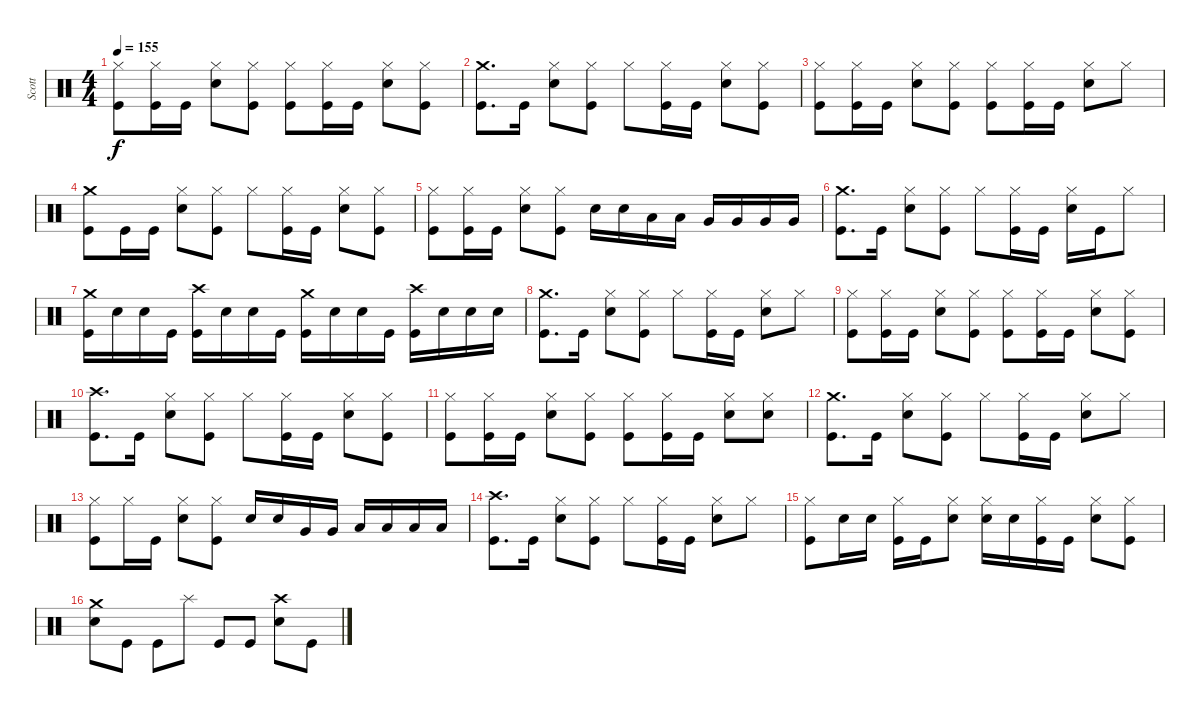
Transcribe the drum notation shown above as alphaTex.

\track ("Scott" "Scott") {instrument percussion}
\staff {score}
\articulation defaults
\ts (4 4)
\tempo 155
\clef neutral
\ks c
("Kick (hit)" "Hi-Hat (closed)").8{dy f} ("Kick (hit)" "Hi-Hat (closed)").16 "Kick (hit)".16 ("Snare (hit) 2" "Hi-Hat (closed)").8 ("Kick (hit)" "Hi-Hat (closed)").8 ("Kick (hit)" "Hi-Hat (closed)").8 ("Kick (hit)" "Hi-Hat (closed)").16 "Kick (hit)".16 ("Snare (hit) 2" "Hi-Hat (closed)").8 ("Kick (hit)" "Hi-Hat (closed)").8 |
("Kick (hit)" "Crash medium (hit)").8{d} "Kick (hit)".16 ("Snare (hit) 2" "Hi-Hat (closed)").8 ("Kick (hit)" "Hi-Hat (closed)").8 "Hi-Hat (closed)".8 ("Kick (hit)" "Hi-Hat (closed)").16 "Kick (hit)".16 ("Snare (hit) 2" "Hi-Hat (closed)").8 ("Kick (hit)" "Hi-Hat (closed)").8 |
("Kick (hit)" "Hi-Hat (closed)").8 ("Kick (hit)" "Hi-Hat (closed)").16 "Kick (hit)".16 ("Snare (hit) 2" "Hi-Hat (closed)").8 ("Kick (hit)" "Hi-Hat (closed)").8 ("Kick (hit)" "Hi-Hat (closed)").8 ("Kick (hit)" "Hi-Hat (closed)").16 "Kick (hit)".16 ("Snare (hit) 2" "Hi-Hat (closed)").8 "Hi-Hat (closed)".8 |
("Kick (hit)" "Crash medium (hit)").8 "Kick (hit)".16 "Kick (hit)".16 ("Snare (hit) 2" "Hi-Hat (closed)").8 ("Kick (hit)" "Hi-Hat (closed)").8 "Hi-Hat (closed)".8 ("Kick (hit)" "Hi-Hat (closed)").16 "Kick (hit)".16 ("Snare (hit) 2" "Hi-Hat (closed)").8 ("Kick (hit)" "Hi-Hat (closed)").8 |
("Kick (hit)" "Hi-Hat (closed)").8 ("Kick (hit)" "Hi-Hat (closed)").16 "Kick (hit)".16 ("Snare (hit) 2" "Hi-Hat (closed)").8 ("Kick (hit)" "Hi-Hat (closed)").8 "Snare (hit) 2".16 "Snare (hit) 2".16 "Low Tom (hit)".16 "Low Tom (hit)".16 "Very Low Tom (hit)".16 "Very Low Tom (hit)".16 "Very Low Tom (hit)".16 "Very Low Tom (hit)".16 |
("Kick (hit)" "Crash medium (hit)").8{d} "Kick (hit)".16 ("Snare (hit) 2" "Hi-Hat (closed)").8 ("Kick (hit)" "Hi-Hat (closed)").8 "Hi-Hat (closed)".8 ("Kick (hit)" "Hi-Hat (closed)").16 "Kick (hit)".16 ("Snare (hit) 2" "Hi-Hat (closed)").16 "Kick (hit)".16 "Hi-Hat (closed)".8 |
("Kick (hit)" "Crash medium (hit)").16 "Snare (hit) 2".16 "Snare (hit) 2".16 "Kick (hit)".16 ("Kick (hit)" "Crash high (hit)").16 "Snare (hit) 2".16 "Snare (hit) 2".16 "Kick (hit)".16 ("Kick (hit)" "Crash medium (hit)").16 "Snare (hit) 2".16 "Snare (hit) 2".16 "Kick (hit)".16 ("Kick (hit)" "Crash high (hit)").16 "Snare (hit) 2".16 "Snare (hit) 2".16 "Snare (hit) 2".16 |
("Kick (hit)" "Crash medium (hit)").8{d} "Kick (hit)".16 ("Snare (hit) 2" "Hi-Hat (closed)").8 ("Kick (hit)" "Hi-Hat (closed)").8 "Hi-Hat (closed)".8 ("Kick (hit)" "Hi-Hat (closed)").16 "Kick (hit)".16 ("Snare (hit) 2" "Hi-Hat (closed)").8 "Hi-Hat (closed)".8 |
("Kick (hit)" "Hi-Hat (closed)").8 ("Kick (hit)" "Hi-Hat (closed)").16 "Kick (hit)".16 ("Snare (hit) 2" "Hi-Hat (closed)").8 ("Kick (hit)" "Hi-Hat (closed)").8 ("Kick (hit)" "Hi-Hat (closed)").8 ("Kick (hit)" "Hi-Hat (closed)").16 "Kick (hit)".16 ("Snare (hit) 2" "Hi-Hat (closed)").8 ("Kick (hit)" "Hi-Hat (closed)").8 |
("Kick (hit)" "Crash high (hit)").8{d} "Kick (hit)".16 ("Snare (hit) 2" "Hi-Hat (closed)").8 ("Kick (hit)" "Hi-Hat (closed)").8 "Hi-Hat (closed)".8 ("Kick (hit)" "Hi-Hat (closed)").16 "Kick (hit)".16 ("Snare (hit) 2" "Hi-Hat (closed)").8 ("Kick (hit)" "Hi-Hat (closed)").8 |
("Kick (hit)" "Hi-Hat (closed)").8 ("Kick (hit)" "Hi-Hat (closed)").16 "Kick (hit)".16 ("Snare (hit) 2" "Hi-Hat (closed)").8 ("Kick (hit)" "Hi-Hat (closed)").8 ("Kick (hit)" "Hi-Hat (closed)").8 ("Kick (hit)" "Hi-Hat (closed)").16 "Kick (hit)".16 ("Snare (hit) 2" "Hi-Hat (closed)").8 ("Snare (hit) 2" "Hi-Hat (closed)").8 |
("Kick (hit)" "Crash medium (hit)").8{d} "Kick (hit)".16 ("Snare (hit) 2" "Hi-Hat (closed)").8 ("Kick (hit)" "Hi-Hat (closed)").8 "Hi-Hat (closed)".8 ("Kick (hit)" "Hi-Hat (closed)").16 "Kick (hit)".16 ("Snare (hit) 2" "Hi-Hat (closed)").8 "Hi-Hat (closed)".8 |
("Kick (hit)" "Hi-Hat (closed)").8 "Hi-Hat (closed)".16 "Kick (hit)".16 ("Snare (hit) 2" "Hi-Hat (closed)").8 ("Kick (hit)" "Hi-Hat (closed)").8 "Snare (hit) 2".16 "Snare (hit) 2".16 "Very Low Tom (hit)".16 "Very Low Tom (hit)".16 "Low Floor Tom (hit)".16 "Low Floor Tom (hit)".16 "Low Floor Tom (hit)".16 "Low Floor Tom (hit)".16 |
("Kick (hit)" "Crash high (hit)").8{d} "Kick (hit)".16 ("Snare (hit) 2" "Hi-Hat (closed)").8 ("Kick (hit)" "Hi-Hat (closed)").8 "Hi-Hat (closed)".8 ("Kick (hit)" "Hi-Hat (closed)").16 "Kick (hit)".16 ("Snare (hit) 2" "Hi-Hat (closed)").8 "Hi-Hat (closed)".8 |
("Kick (hit)" "Hi-Hat (closed)").8 "Snare (hit) 2".16 "Snare (hit) 2".16 ("Kick (hit)" "Hi-Hat (closed)").16 "Kick (hit)".16 ("Snare (hit) 2" "Hi-Hat (closed)").8 ("Snare (hit) 2" "Hi-Hat (closed)").16 "Snare (hit) 2".16 ("Kick (hit)" "Hi-Hat (closed)").16 "Kick (hit)".16 ("Snare (hit) 2" "Hi-Hat (closed)").8 ("Kick (hit)" "Hi-Hat (closed)").8 |
("Snare (hit) 2" "Crash medium (hit)").8 "Kick (hit)".8 "Kick (hit)".8 "Splash (hit)".8 "Kick (hit)".8 "Kick (hit)".8 ("Snare (hit) 2" "Crash high (hit)").8 "Kick (hit)".8
